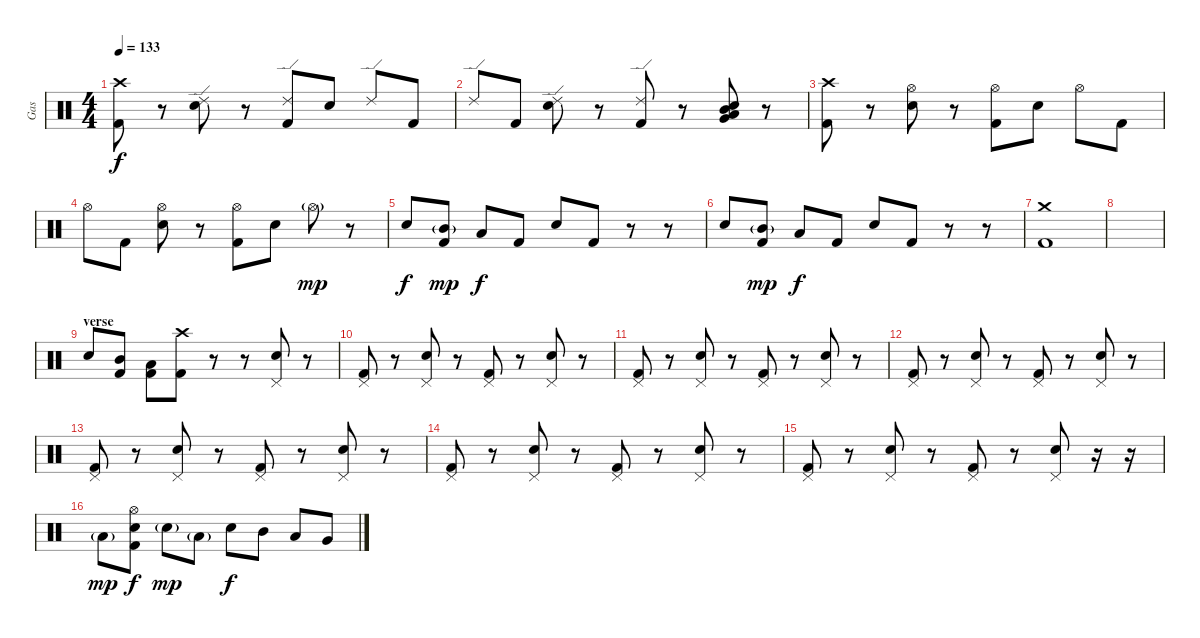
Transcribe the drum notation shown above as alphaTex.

\track ("Gas" "Gas") {instrument percussion}
\staff {score}
\articulation defaults
\ts (4 4)
\tempo 133
\clef neutral
\ks c
("Crash high (hit)" "Kick (hit) 2").8{dy f} r.8 ("Ride (edge) 2" "Electric Snare (hit)").8 r.8 ("Ride (edge) 2" "Kick (hit) 2").8 "Electric Snare (hit)".8 "Ride (edge) 2".8 "Kick (hit) 2".8 |
"Ride (edge) 2".8 "Kick (hit) 2".8 ("Ride (edge) 2" "Electric Snare (hit)").8 r.8 ("Ride (edge) 2" "Kick (hit) 2").8 r.8 ("Electric Snare (hit)" "Mid Tom (hit)" "Low Floor Tom (hit)" "Very Low Tom (hit)").8 r.8 |
("Crash high (hit)" "Kick (hit) 2").8 r.8 ("Hi-Hat (open)" "Electric Snare (hit)").8 r.8 ("Hi-Hat (open)" "Kick (hit) 2").8 "Electric Snare (hit)".8 "Hi-Hat (open)".8 "Kick (hit) 2".8 |
"Hi-Hat (open)".8 "Kick (hit) 2".8 ("Hi-Hat (open)" "Electric Snare (hit)").8 r.8 ("Hi-Hat (open)" "Kick (hit) 2").8 "Electric Snare (hit)".8 "Hi-Hat (open)"{g}.8{dy mp} r.8 |
"Electric Snare (hit)".8{dy f} ("Kick (hit) 2" "Mid Tom (hit)"{g}).8{dy mp} "Low Tom (hit)".8{dy f} "Kick (hit) 2".8 "Electric Snare (hit)".8 "Kick (hit) 2".8 r.8 r.8 |
"Electric Snare (hit)".8 ("Kick (hit) 2" "Mid Tom (hit)"{g}).8{dy mp} "Low Tom (hit)".8{dy f} "Kick (hit) 2".8 "Electric Snare (hit)".8 "Kick (hit) 2".8 r.8 r.8 |
("Crash medium (hit)" "Kick (hit) 2").1 |
|
\section ("" "verse")
"Electric Snare (hit)".8 ("Mid Tom (hit)" "Kick (hit) 2").8 ("Low Tom (hit)" "Kick (hit) 2").8 ("Crash high (hit)" "Kick (hit) 2").8 r.8 r.8 ("Pedal Hi-Hat (hit)" "Electric Snare (hit)").8 r.8 |
("Pedal Hi-Hat (hit)" "Kick (hit) 2").8 r.8 ("Pedal Hi-Hat (hit)" "Electric Snare (hit)").8 r.8 ("Pedal Hi-Hat (hit)" "Kick (hit) 2").8 r.8 ("Pedal Hi-Hat (hit)" "Electric Snare (hit)").8 r.8 |
("Pedal Hi-Hat (hit)" "Kick (hit) 2").8 r.8 ("Pedal Hi-Hat (hit)" "Electric Snare (hit)").8 r.8 ("Pedal Hi-Hat (hit)" "Kick (hit) 2").8 r.8 ("Pedal Hi-Hat (hit)" "Electric Snare (hit)").8 r.8 |
("Pedal Hi-Hat (hit)" "Kick (hit) 2").8 r.8 ("Pedal Hi-Hat (hit)" "Electric Snare (hit)").8 r.8 ("Pedal Hi-Hat (hit)" "Kick (hit) 2").8 r.8 ("Pedal Hi-Hat (hit)" "Electric Snare (hit)").8 r.8 |
("Pedal Hi-Hat (hit)" "Kick (hit) 2").8 r.8 ("Pedal Hi-Hat (hit)" "Electric Snare (hit)").8 r.8 ("Pedal Hi-Hat (hit)" "Kick (hit) 2").8 r.8 ("Pedal Hi-Hat (hit)" "Electric Snare (hit)").8 r.8 |
("Pedal Hi-Hat (hit)" "Kick (hit) 2").8 r.8 ("Pedal Hi-Hat (hit)" "Electric Snare (hit)").8 r.8 ("Pedal Hi-Hat (hit)" "Kick (hit) 2").8 r.8 ("Pedal Hi-Hat (hit)" "Electric Snare (hit)").8 r.8 |
("Pedal Hi-Hat (hit)" "Kick (hit) 2").8 r.8 ("Pedal Hi-Hat (hit)" "Electric Snare (hit)").8 r.8 ("Pedal Hi-Hat (hit)" "Kick (hit) 2").8 r.8 ("Pedal Hi-Hat (hit)" "Electric Snare (hit)").8 r.16 r.16 |
"Low Tom (hit)"{g}.8{dy mp} ("Hi-Hat (open)" "Kick (hit) 2" "Electric Snare (hit)").8{dy f} "Electric Snare (hit)"{g}.8{dy mp} "Low Tom (hit)"{g}.8 "Electric Snare (hit)".8{dy f} "Mid Tom (hit)".8 "Low Tom (hit)".8 "Very Low Tom (hit)".8
